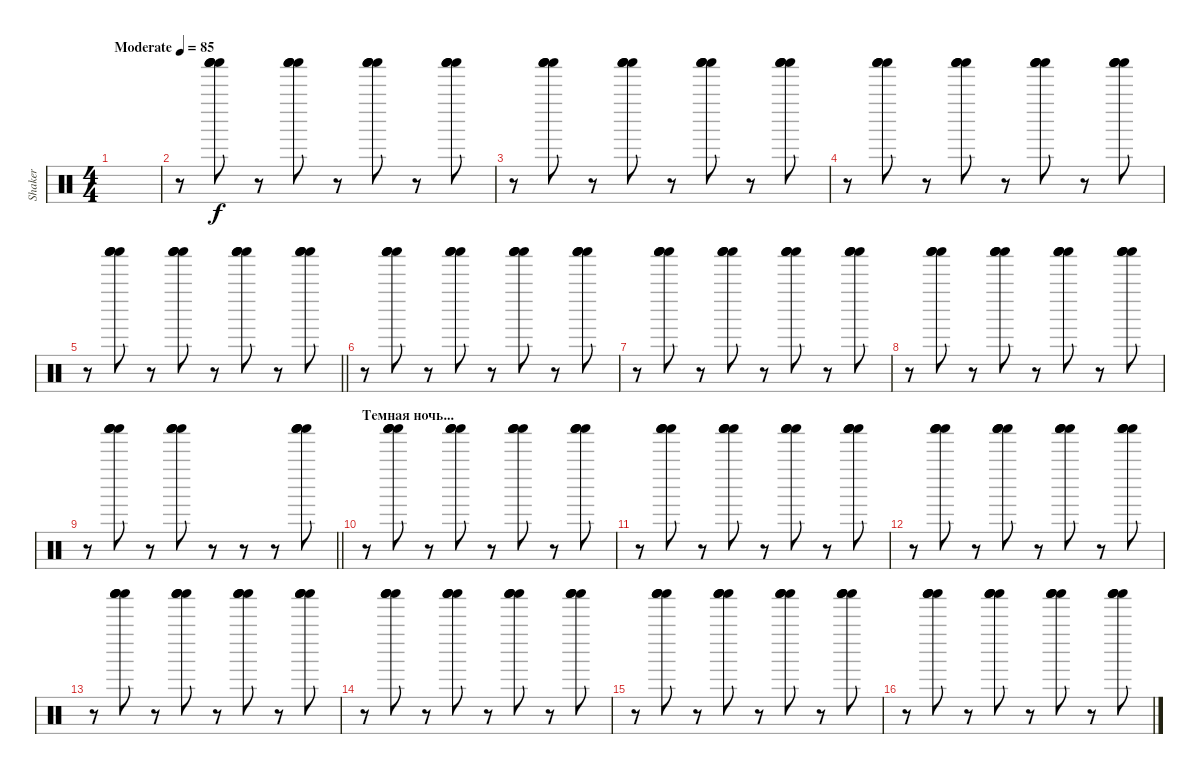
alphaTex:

\track ("Shaker" "Shaker") {instrument percussion}
\staff {score}
\articulation defaults
\ts (4 4)
\tempo (85 "Moderate")
\clef neutral
\ks c
|
r.8 ("Shaker (hit)" "Shaker (hit)" "Shaker (hit)" "Shaker (hit)").8 r.8 ("Shaker (hit)" "Shaker (hit)" "Shaker (hit)" "Shaker (hit)").8 r.8 ("Shaker (hit)" "Shaker (hit)" "Shaker (hit)" "Shaker (hit)").8 r.8 ("Shaker (hit)" "Shaker (hit)" "Shaker (hit)" "Shaker (hit)").8 |
r.8 ("Shaker (hit)" "Shaker (hit)" "Shaker (hit)" "Shaker (hit)").8 r.8 ("Shaker (hit)" "Shaker (hit)" "Shaker (hit)" "Shaker (hit)").8 r.8 ("Shaker (hit)" "Shaker (hit)" "Shaker (hit)" "Shaker (hit)").8 r.8 ("Shaker (hit)" "Shaker (hit)" "Shaker (hit)" "Shaker (hit)").8 |
r.8 ("Shaker (hit)" "Shaker (hit)" "Shaker (hit)" "Shaker (hit)").8 r.8 ("Shaker (hit)" "Shaker (hit)" "Shaker (hit)" "Shaker (hit)").8 r.8 ("Shaker (hit)" "Shaker (hit)" "Shaker (hit)" "Shaker (hit)").8 r.8 ("Shaker (hit)" "Shaker (hit)" "Shaker (hit)" "Shaker (hit)").8 |
\barLineRight lightlight
r.8 ("Shaker (hit)" "Shaker (hit)" "Shaker (hit)" "Shaker (hit)").8 r.8 ("Shaker (hit)" "Shaker (hit)" "Shaker (hit)" "Shaker (hit)").8 r.8 ("Shaker (hit)" "Shaker (hit)" "Shaker (hit)" "Shaker (hit)").8 r.8 ("Shaker (hit)" "Shaker (hit)" "Shaker (hit)" "Shaker (hit)").8 |
r.8 ("Shaker (hit)" "Shaker (hit)" "Shaker (hit)" "Shaker (hit)").8 r.8 ("Shaker (hit)" "Shaker (hit)" "Shaker (hit)" "Shaker (hit)").8 r.8 ("Shaker (hit)" "Shaker (hit)" "Shaker (hit)" "Shaker (hit)").8 r.8 ("Shaker (hit)" "Shaker (hit)" "Shaker (hit)" "Shaker (hit)").8 |
r.8 ("Shaker (hit)" "Shaker (hit)" "Shaker (hit)" "Shaker (hit)").8 r.8 ("Shaker (hit)" "Shaker (hit)" "Shaker (hit)" "Shaker (hit)").8 r.8 ("Shaker (hit)" "Shaker (hit)" "Shaker (hit)" "Shaker (hit)").8 r.8 ("Shaker (hit)" "Shaker (hit)" "Shaker (hit)" "Shaker (hit)").8 |
r.8 ("Shaker (hit)" "Shaker (hit)" "Shaker (hit)" "Shaker (hit)").8 r.8 ("Shaker (hit)" "Shaker (hit)" "Shaker (hit)" "Shaker (hit)").8 r.8 ("Shaker (hit)" "Shaker (hit)" "Shaker (hit)" "Shaker (hit)").8 r.8 ("Shaker (hit)" "Shaker (hit)" "Shaker (hit)" "Shaker (hit)").8 |
\barLineRight lightlight
r.8 ("Shaker (hit)" "Shaker (hit)" "Shaker (hit)" "Shaker (hit)").8 r.8 ("Shaker (hit)" "Shaker (hit)" "Shaker (hit)" "Shaker (hit)").8 r.8 r.8 r.8 ("Shaker (hit)" "Shaker (hit)" "Shaker (hit)" "Shaker (hit)").8 |
\section ("" "Темная ночь...")
r.8 ("Shaker (hit)" "Shaker (hit)" "Shaker (hit)" "Shaker (hit)").8 r.8 ("Shaker (hit)" "Shaker (hit)" "Shaker (hit)" "Shaker (hit)").8 r.8 ("Shaker (hit)" "Shaker (hit)" "Shaker (hit)" "Shaker (hit)").8 r.8 ("Shaker (hit)" "Shaker (hit)" "Shaker (hit)" "Shaker (hit)").8 |
r.8 ("Shaker (hit)" "Shaker (hit)" "Shaker (hit)" "Shaker (hit)").8 r.8 ("Shaker (hit)" "Shaker (hit)" "Shaker (hit)" "Shaker (hit)").8 r.8 ("Shaker (hit)" "Shaker (hit)" "Shaker (hit)" "Shaker (hit)").8 r.8 ("Shaker (hit)" "Shaker (hit)" "Shaker (hit)" "Shaker (hit)").8 |
r.8 ("Shaker (hit)" "Shaker (hit)" "Shaker (hit)" "Shaker (hit)").8 r.8 ("Shaker (hit)" "Shaker (hit)" "Shaker (hit)" "Shaker (hit)").8 r.8 ("Shaker (hit)" "Shaker (hit)" "Shaker (hit)" "Shaker (hit)").8 r.8 ("Shaker (hit)" "Shaker (hit)" "Shaker (hit)" "Shaker (hit)").8 |
r.8 ("Shaker (hit)" "Shaker (hit)" "Shaker (hit)" "Shaker (hit)").8 r.8 ("Shaker (hit)" "Shaker (hit)" "Shaker (hit)" "Shaker (hit)").8 r.8 ("Shaker (hit)" "Shaker (hit)" "Shaker (hit)" "Shaker (hit)").8 r.8 ("Shaker (hit)" "Shaker (hit)" "Shaker (hit)" "Shaker (hit)").8 |
r.8 ("Shaker (hit)" "Shaker (hit)" "Shaker (hit)" "Shaker (hit)").8 r.8 ("Shaker (hit)" "Shaker (hit)" "Shaker (hit)" "Shaker (hit)").8 r.8 ("Shaker (hit)" "Shaker (hit)" "Shaker (hit)" "Shaker (hit)").8 r.8 ("Shaker (hit)" "Shaker (hit)" "Shaker (hit)" "Shaker (hit)").8 |
r.8 ("Shaker (hit)" "Shaker (hit)" "Shaker (hit)" "Shaker (hit)").8 r.8 ("Shaker (hit)" "Shaker (hit)" "Shaker (hit)" "Shaker (hit)").8 r.8 ("Shaker (hit)" "Shaker (hit)" "Shaker (hit)" "Shaker (hit)").8 r.8 ("Shaker (hit)" "Shaker (hit)" "Shaker (hit)" "Shaker (hit)").8 |
r.8 ("Shaker (hit)" "Shaker (hit)" "Shaker (hit)" "Shaker (hit)").8 r.8 ("Shaker (hit)" "Shaker (hit)" "Shaker (hit)" "Shaker (hit)").8 r.8 ("Shaker (hit)" "Shaker (hit)" "Shaker (hit)" "Shaker (hit)").8 r.8 ("Shaker (hit)" "Shaker (hit)" "Shaker (hit)" "Shaker (hit)").8
